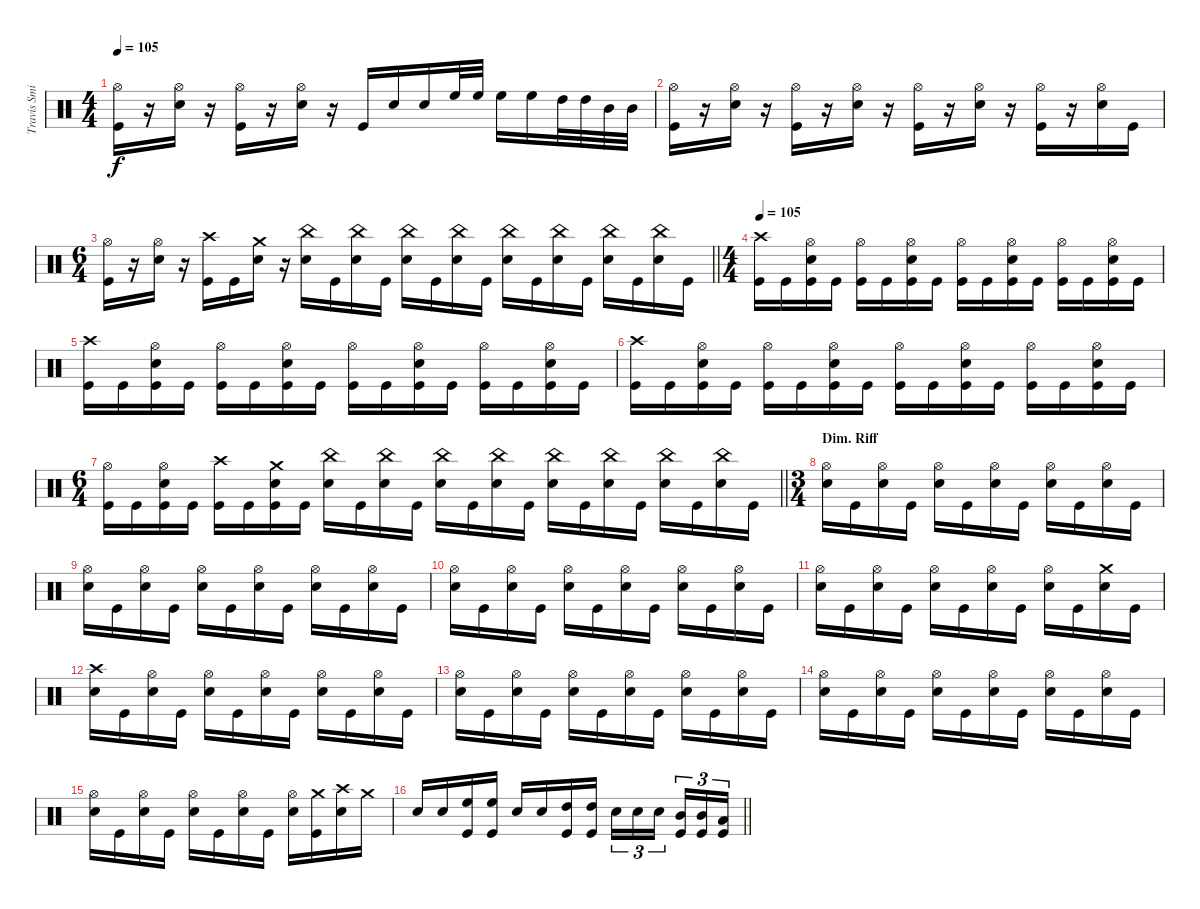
\track ("Travis Smith" "Travis Smi") {instrument percussion}
\staff {score}
\articulation defaults
\ts (4 4)
\tempo 105
\clef neutral
\ks c
("Hi-Hat (open)" "Kick (hit)").16{dy f} r.16 ("Hi-Hat (open)" "Electric Snare (hit)").16 r.16 ("Hi-Hat (open)" "Kick (hit)").16 r.16 ("Hi-Hat (open)" "Electric Snare (hit)").16 r.16 "Kick (hit)".16 "Electric Snare (hit)".16 "Electric Snare (hit)".16 "High Floor Tom (hit)".32 "High Floor Tom (hit)".32 "High Floor Tom (hit)".16 "High Floor Tom (hit)".16 "High Tom (hit)".32 "High Tom (hit)".32 "Mid Tom (hit)".32 "Mid Tom (hit)".32 |
("Hi-Hat (open)" "Kick (hit)").16 r.16 ("Hi-Hat (open)" "Electric Snare (hit)").16 r.16 ("Hi-Hat (open)" "Kick (hit)").16 r.16 ("Hi-Hat (open)" "Electric Snare (hit)").16 r.16 ("Hi-Hat (open)" "Kick (hit)").16 r.16 ("Hi-Hat (open)" "Electric Snare (hit)").16 r.16 ("Hi-Hat (open)" "Kick (hit)").16 r.16 ("Hi-Hat (open)" "Electric Snare (hit)").16 "Kick (hit)".16 |
\ts (6 4)
\barLineRight lightlight
("Hi-Hat (open)" "Kick (hit)").16 r.16 ("Hi-Hat (open)" "Electric Snare (hit)").16 r.16 ("Crash high (hit)" "Kick (hit)").16 "Kick (hit)".16 ("Crash medium (hit)" "Electric Snare (hit)").16 r.16 ("China (hit)" "Electric Snare (hit)").16 "Kick (hit)".16 ("China (hit)" "Electric Snare (hit)").16 "Kick (hit)".16 ("China (hit)" "Electric Snare (hit)").16 "Kick (hit)".16 ("China (hit)" "Electric Snare (hit)").16 "Kick (hit)".16 ("China (hit)" "Electric Snare (hit)").16 "Kick (hit)".16 ("China (hit)" "Electric Snare (hit)").16 "Kick (hit)".16 ("China (hit)" "Electric Snare (hit)").16 "Kick (hit)".16 ("China (hit)" "Electric Snare (hit)").16 "Kick (hit)".16 |
\ts (4 4)
\tempo 105
("Crash high (hit)" "Kick (hit)").16 "Kick (hit)".16 ("Hi-Hat (open)" "Electric Snare (hit)" "Kick (hit)").16 "Kick (hit)".16 ("Hi-Hat (open)" "Kick (hit)").16 "Kick (hit)".16 ("Hi-Hat (open)" "Electric Snare (hit)" "Kick (hit)").16 "Kick (hit)".16 ("Hi-Hat (open)" "Kick (hit)").16 "Kick (hit)".16 ("Hi-Hat (open)" "Electric Snare (hit)" "Kick (hit)").16 "Kick (hit)".16 ("Hi-Hat (open)" "Kick (hit)").16 "Kick (hit)".16 ("Hi-Hat (open)" "Electric Snare (hit)" "Kick (hit)").16 "Kick (hit)".16 |
("Crash high (hit)" "Kick (hit)").16 "Kick (hit)".16 ("Hi-Hat (open)" "Electric Snare (hit)" "Kick (hit)").16 "Kick (hit)".16 ("Hi-Hat (open)" "Kick (hit)").16 "Kick (hit)".16 ("Hi-Hat (open)" "Electric Snare (hit)" "Kick (hit)").16 "Kick (hit)".16 ("Hi-Hat (open)" "Kick (hit)").16 "Kick (hit)".16 ("Hi-Hat (open)" "Electric Snare (hit)" "Kick (hit)").16 "Kick (hit)".16 ("Hi-Hat (open)" "Kick (hit)").16 "Kick (hit)".16 ("Hi-Hat (open)" "Electric Snare (hit)" "Kick (hit)").16 "Kick (hit)".16 |
("Crash high (hit)" "Kick (hit)").16 "Kick (hit)".16 ("Hi-Hat (open)" "Electric Snare (hit)" "Kick (hit)").16 "Kick (hit)".16 ("Hi-Hat (open)" "Kick (hit)").16 "Kick (hit)".16 ("Hi-Hat (open)" "Electric Snare (hit)" "Kick (hit)").16 "Kick (hit)".16 ("Hi-Hat (open)" "Kick (hit)").16 "Kick (hit)".16 ("Hi-Hat (open)" "Electric Snare (hit)" "Kick (hit)").16 "Kick (hit)".16 ("Hi-Hat (open)" "Kick (hit)").16 "Kick (hit)".16 ("Hi-Hat (open)" "Electric Snare (hit)" "Kick (hit)").16 "Kick (hit)".16 |
\ts (6 4)
\barLineRight lightlight
("Hi-Hat (open)" "Kick (hit)").16 "Kick (hit)".16 ("Hi-Hat (open)" "Electric Snare (hit)" "Kick (hit)").16 "Kick (hit)".16 ("Crash high (hit)" "Kick (hit)").16 "Kick (hit)".16 ("Crash medium (hit)" "Electric Snare (hit)" "Kick (hit)").16 "Kick (hit)".16 ("China (hit)" "Electric Snare (hit)").16 "Kick (hit)".16 ("China (hit)" "Electric Snare (hit)").16 "Kick (hit)".16 ("China (hit)" "Electric Snare (hit)").16 "Kick (hit)".16 ("China (hit)" "Electric Snare (hit)").16 "Kick (hit)".16 ("China (hit)" "Electric Snare (hit)").16 "Kick (hit)".16 ("China (hit)" "Electric Snare (hit)").16 "Kick (hit)".16 ("China (hit)" "Electric Snare (hit)").16 "Kick (hit)".16 ("China (hit)" "Electric Snare (hit)").16 "Kick (hit)".16 |
\ts (3 4)
\section ("" "Dim. Riff")
("Hi-Hat (open)" "Electric Snare (hit)").16 "Kick (hit)".16 ("Hi-Hat (open)" "Electric Snare (hit)").16 "Kick (hit)".16 ("Hi-Hat (open)" "Electric Snare (hit)").16 "Kick (hit)".16 ("Hi-Hat (open)" "Electric Snare (hit)").16 "Kick (hit)".16 ("Hi-Hat (open)" "Electric Snare (hit)").16 "Kick (hit)".16 ("Hi-Hat (open)" "Electric Snare (hit)").16 "Kick (hit)".16 |
("Hi-Hat (open)" "Electric Snare (hit)").16 "Kick (hit)".16 ("Hi-Hat (open)" "Electric Snare (hit)").16 "Kick (hit)".16 ("Hi-Hat (open)" "Electric Snare (hit)").16 "Kick (hit)".16 ("Hi-Hat (open)" "Electric Snare (hit)").16 "Kick (hit)".16 ("Hi-Hat (open)" "Electric Snare (hit)").16 "Kick (hit)".16 ("Hi-Hat (open)" "Electric Snare (hit)").16 "Kick (hit)".16 |
("Hi-Hat (open)" "Electric Snare (hit)").16 "Kick (hit)".16 ("Hi-Hat (open)" "Electric Snare (hit)").16 "Kick (hit)".16 ("Hi-Hat (open)" "Electric Snare (hit)").16 "Kick (hit)".16 ("Hi-Hat (open)" "Electric Snare (hit)").16 "Kick (hit)".16 ("Hi-Hat (open)" "Electric Snare (hit)").16 "Kick (hit)".16 ("Hi-Hat (open)" "Electric Snare (hit)").16 "Kick (hit)".16 |
("Hi-Hat (open)" "Electric Snare (hit)").16 "Kick (hit)".16 ("Hi-Hat (open)" "Electric Snare (hit)").16 "Kick (hit)".16 ("Hi-Hat (open)" "Electric Snare (hit)").16 "Kick (hit)".16 ("Hi-Hat (open)" "Electric Snare (hit)").16 "Kick (hit)".16 ("Hi-Hat (open)" "Electric Snare (hit)").16 "Kick (hit)".16 ("Crash medium (hit)" "Electric Snare (hit)").16 "Kick (hit)".16 |
("Crash high (hit)" "Electric Snare (hit)").16 "Kick (hit)".16 ("Hi-Hat (open)" "Electric Snare (hit)").16 "Kick (hit)".16 ("Hi-Hat (open)" "Electric Snare (hit)").16 "Kick (hit)".16 ("Hi-Hat (open)" "Electric Snare (hit)").16 "Kick (hit)".16 ("Hi-Hat (open)" "Electric Snare (hit)").16 "Kick (hit)".16 ("Hi-Hat (open)" "Electric Snare (hit)").16 "Kick (hit)".16 |
("Hi-Hat (open)" "Electric Snare (hit)").16 "Kick (hit)".16 ("Hi-Hat (open)" "Electric Snare (hit)").16 "Kick (hit)".16 ("Hi-Hat (open)" "Electric Snare (hit)").16 "Kick (hit)".16 ("Hi-Hat (open)" "Electric Snare (hit)").16 "Kick (hit)".16 ("Hi-Hat (open)" "Electric Snare (hit)").16 "Kick (hit)".16 ("Hi-Hat (open)" "Electric Snare (hit)").16 "Kick (hit)".16 |
("Hi-Hat (open)" "Electric Snare (hit)").16 "Kick (hit)".16 ("Hi-Hat (open)" "Electric Snare (hit)").16 "Kick (hit)".16 ("Hi-Hat (open)" "Electric Snare (hit)").16 "Kick (hit)".16 ("Hi-Hat (open)" "Electric Snare (hit)").16 "Kick (hit)".16 ("Hi-Hat (open)" "Electric Snare (hit)").16 "Kick (hit)".16 ("Hi-Hat (open)" "Electric Snare (hit)").16 "Kick (hit)".16 |
("Hi-Hat (open)" "Electric Snare (hit)").16 "Kick (hit)".16 ("Hi-Hat (open)" "Electric Snare (hit)").16 "Kick (hit)".16 ("Hi-Hat (open)" "Electric Snare (hit)").16 "Kick (hit)".16 ("Hi-Hat (open)" "Electric Snare (hit)").16 "Kick (hit)".16 ("Hi-Hat (open)" "Electric Snare (hit)").16 ("Crash medium (hit)" "Kick (hit)").16 ("Crash high (hit)" "Electric Snare (hit)").16 "Crash medium (hit)".16 |
\barLineRight lightlight "Electric Snare (hit)".16 "Electric Snare (hit)".16
("High Floor Tom (hit)" "Kick (hit)").16 ("High Floor Tom (hit)" "Kick (hit)").16 "Electric Snare (hit)".16 "Electric Snare (hit)".16 ("High Tom (hit)" "Kick (hit)").16 ("High Tom (hit)" "Kick (hit)").16 "Electric Snare (hit)".16{tu (3 2)} "Electric Snare (hit)".16{tu (3 2)} "Electric Snare (hit)".16{tu (3 2) beam splitsecondary} ("Mid Tom (hit)" "Kick (hit)").16{tu (3 2)} ("Mid Tom (hit)" "Kick (hit)").16{tu (3 2)} ("Low Tom (hit)" "Kick (hit)").16{tu (3 2)}
